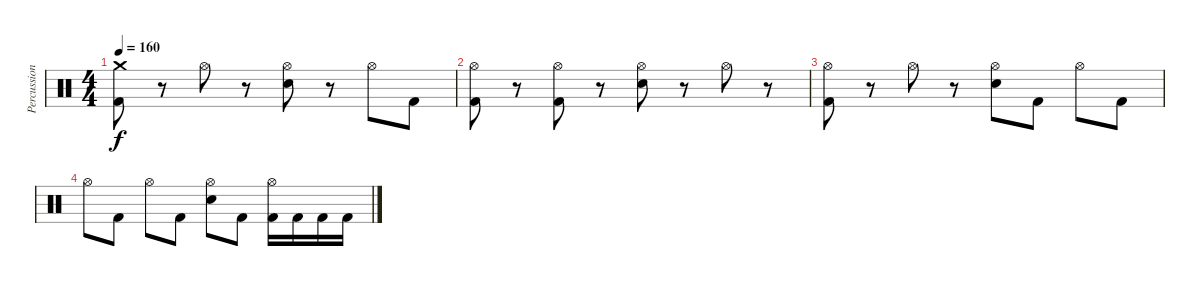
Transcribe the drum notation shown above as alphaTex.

\track ("Percussion" "Percussion") {instrument percussion}
\staff {score}
\articulation defaults
\ts (4 4)
\tempo 160
\clef neutral
\ks c
("Crash medium (hit)" "Kick (hit) 2").8{dy f volume 0} r.8 "Hi-Hat (open)".8 r.8 ("Hi-Hat (open)" "Electric Snare (hit)").8 r.8 "Hi-Hat (open)".8 "Kick (hit) 2".8 |
("Hi-Hat (open)" "Kick (hit) 2").8 r.8 ("Hi-Hat (open)" "Kick (hit) 2").8 r.8 ("Hi-Hat (open)" "Electric Snare (hit)").8 r.8 "Hi-Hat (open)".8 r.8 |
("Hi-Hat (open)" "Kick (hit) 2").8 r.8 "Hi-Hat (open)".8 r.8 ("Hi-Hat (open)" "Electric Snare (hit)").8 "Kick (hit) 2".8 "Hi-Hat (open)".8 "Kick (hit) 2".8 |
"Hi-Hat (open)".8 "Kick (hit) 2".8 "Hi-Hat (open)".8 "Kick (hit) 2".8 ("Hi-Hat (open)" "Electric Snare (hit)").8 "Kick (hit) 2".8 ("Hi-Hat (open)" "Kick (hit) 2").16 "Kick (hit) 2".16 "Kick (hit) 2".16 "Kick (hit) 2".16
